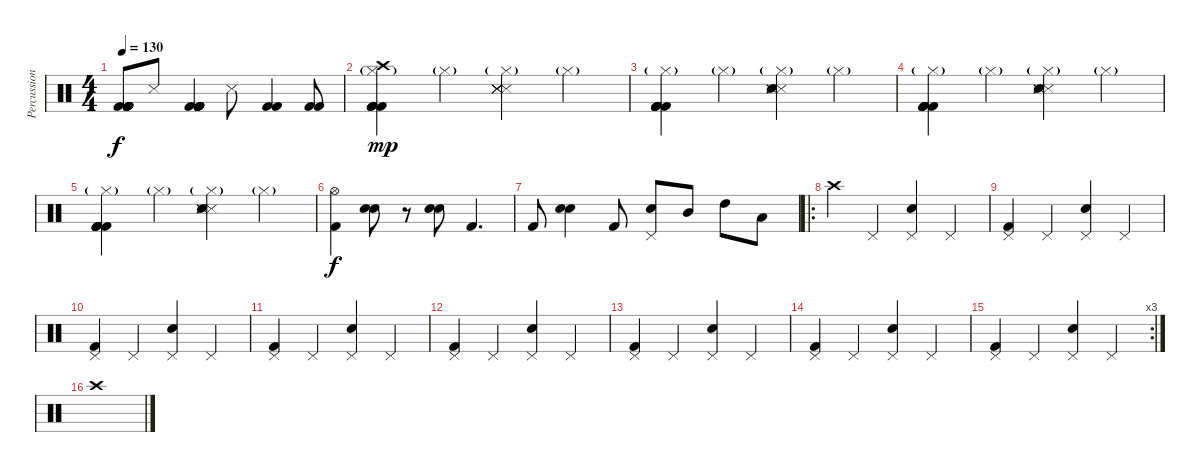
\track ("Percussion" "Percussion") {instrument percussion}
\staff {score}
\articulation defaults
\ts (4 4)
\tempo 130
\clef neutral
\ks c
("Kick (hit) 2" "Kick (hit) 2" "Kick (hit) 2" "Kick (hit) 2" "Kick (hit) 2" "Kick (hit) 2").8{dy f} "Snare (side stick) 3".8 ("Kick (hit) 2" "Kick (hit) 2" "Kick (hit) 2" "Kick (hit) 2" "Kick (hit) 2" "Kick (hit) 2").4 "Snare (side stick) 3".8 ("Kick (hit) 2" "Kick (hit) 2").4 ("Kick (hit) 2" "Kick (hit) 2").8 |
("Crash high (hit)" "Kick (hit) 2" "Kick (hit) 2" "Kick (hit) 2" "Hi-Hat (closed)"{g} "Kick (hit) 2").4{dy mp} "Hi-Hat (closed)"{g}.4 ("Snare (side stick) 3" "Snare (side stick) 3" "Snare (side stick) 3" "Hi-Hat (closed)"{g} "Snare (side stick) 3" "Snare (side stick) 3").4 "Hi-Hat (closed)"{g}.4 |
("Kick (hit) 2" "Kick (hit) 2" "Kick (hit) 2" "Kick (hit) 2" "Hi-Hat (closed)"{g} "Kick (hit) 2").4 "Hi-Hat (closed)"{g}.4 ("Snare (side stick) 3" "Snare (side stick) 3" "Snare (side stick) 3" "Hi-Hat (closed)"{g} "Snare (hit)" "Snare (side stick) 3").4 "Hi-Hat (closed)"{g}.4 |
("Kick (hit) 2" "Kick (hit) 2" "Kick (hit) 2" "Kick (hit) 2" "Hi-Hat (closed)"{g} "Kick (hit) 2").4 "Hi-Hat (closed)"{g}.4 ("Snare (side stick) 3" "Snare (side stick) 3" "Snare (side stick) 3" "Hi-Hat (closed)"{g} "Snare (hit)" "Snare (side stick) 3").4 "Hi-Hat (closed)"{g}.4 |
("Kick (hit) 2" "Kick (hit) 2" "Kick (hit) 2" "Kick (hit) 2" "Hi-Hat (closed)"{g} "Kick (hit) 2").4 "Hi-Hat (closed)"{g}.4 ("Snare (side stick) 3" "Snare (side stick) 3" "Snare (side stick) 3" "Hi-Hat (closed)"{g} "Snare (hit)" "Snare (side stick) 3").4 "Hi-Hat (closed)"{g}.4 |
("Hi-Hat (open)" "Kick (hit) 2").4{dy f} ("Electric Snare (hit)" "Snare (hit) 2").8 r.8 ("Electric Snare (hit)" "Snare (hit) 2").8 "Kick (hit) 2".4{d} |
"Kick (hit) 2".8 ("Electric Snare (hit)" "Snare (hit) 2").4 "Kick (hit) 2".8 ("Pedal Hi-Hat (hit)" "Snare (hit) 2").8 "Mid Tom (hit)".8 "High Tom (hit)".8 "Low Tom (hit)".8 |
\ro "Crash high (hit)".4 "Pedal Hi-Hat (hit)".4
("Pedal Hi-Hat (hit)" "Snare (hit) 2").4 "Pedal Hi-Hat (hit)".4 |
("Pedal Hi-Hat (hit)" "Kick (hit) 2").4 "Pedal Hi-Hat (hit)".4 ("Pedal Hi-Hat (hit)" "Snare (hit) 2").4 "Pedal Hi-Hat (hit)".4 |
("Pedal Hi-Hat (hit)" "Kick (hit) 2").4 "Pedal Hi-Hat (hit)".4 ("Pedal Hi-Hat (hit)" "Snare (hit) 2").4 "Pedal Hi-Hat (hit)".4 |
("Pedal Hi-Hat (hit)" "Kick (hit) 2").4 "Pedal Hi-Hat (hit)".4 ("Pedal Hi-Hat (hit)" "Snare (hit) 2").4 "Pedal Hi-Hat (hit)".4 |
("Pedal Hi-Hat (hit)" "Kick (hit) 2").4 "Pedal Hi-Hat (hit)".4 ("Pedal Hi-Hat (hit)" "Snare (hit) 2").4 "Pedal Hi-Hat (hit)".4 |
("Pedal Hi-Hat (hit)" "Kick (hit) 2").4 "Pedal Hi-Hat (hit)".4 ("Pedal Hi-Hat (hit)" "Snare (hit) 2").4 "Pedal Hi-Hat (hit)".4 |
("Pedal Hi-Hat (hit)" "Kick (hit) 2").4 "Pedal Hi-Hat (hit)".4 ("Pedal Hi-Hat (hit)" "Snare (hit) 2").4 "Pedal Hi-Hat (hit)".4 |
\rc 3
("Pedal Hi-Hat (hit)" "Kick (hit) 2").4 "Pedal Hi-Hat (hit)".4 ("Pedal Hi-Hat (hit)" "Snare (hit) 2").4 "Pedal Hi-Hat (hit)".4 |
"Crash high (hit)".1
